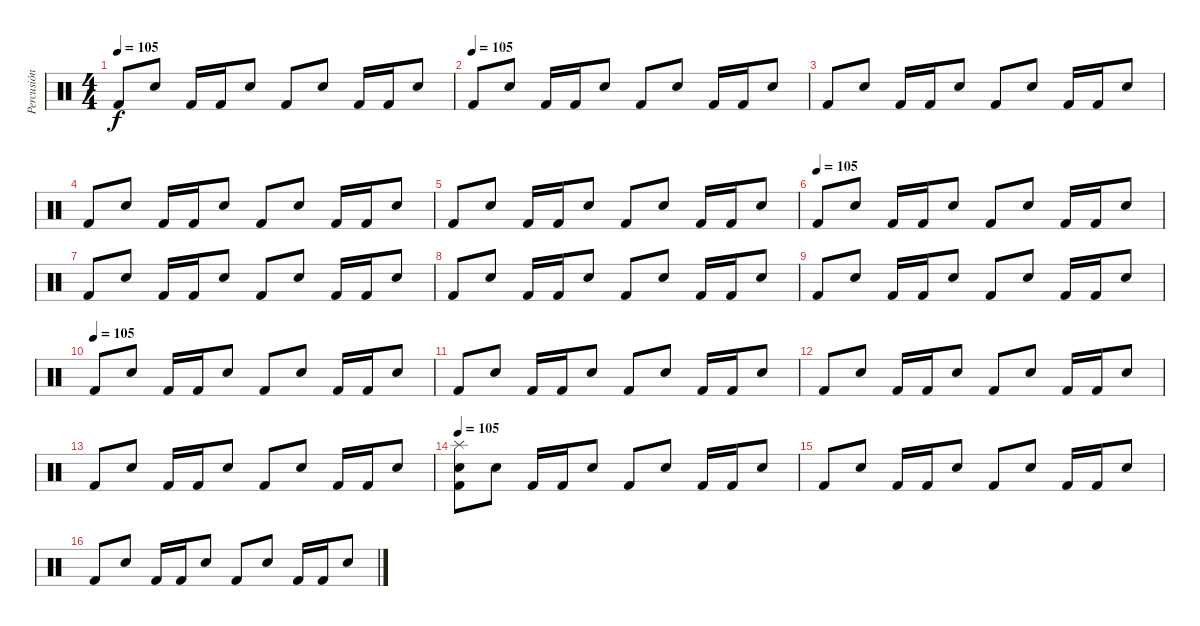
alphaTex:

\track ("Percusión" "Percusión") {instrument percussion}
\staff {score}
\articulation defaults
\ts (4 4)
\tempo 105
\clef neutral
\ks c "Kick (hit) 2".8{dy f} "Electric Snare (hit)".8 "Kick (hit) 2".16 "Kick (hit) 2".16 "Electric Snare (hit)".8 "Kick (hit) 2".8 "Electric Snare (hit)".8 "Kick (hit) 2".16 "Kick (hit) 2".16 "Electric Snare (hit)".8
|
\tempo (105)
"Kick (hit) 2".8 "Electric Snare (hit)".8 "Kick (hit) 2".16 "Kick (hit) 2".16 "Electric Snare (hit)".8 "Kick (hit) 2".8 "Electric Snare (hit)".8 "Kick (hit) 2".16 "Kick (hit) 2".16 "Electric Snare (hit)".8 |
"Kick (hit) 2".8 "Electric Snare (hit)".8 "Kick (hit) 2".16 "Kick (hit) 2".16 "Electric Snare (hit)".8 "Kick (hit) 2".8 "Electric Snare (hit)".8 "Kick (hit) 2".16 "Kick (hit) 2".16 "Electric Snare (hit)".8 |
"Kick (hit) 2".8 "Electric Snare (hit)".8 "Kick (hit) 2".16 "Kick (hit) 2".16 "Electric Snare (hit)".8 "Kick (hit) 2".8 "Electric Snare (hit)".8 "Kick (hit) 2".16 "Kick (hit) 2".16 "Electric Snare (hit)".8 |
"Kick (hit) 2".8 "Electric Snare (hit)".8 "Kick (hit) 2".16 "Kick (hit) 2".16 "Electric Snare (hit)".8 "Kick (hit) 2".8 "Electric Snare (hit)".8 "Kick (hit) 2".16 "Kick (hit) 2".16 "Electric Snare (hit)".8 |
\tempo (105)
"Kick (hit) 2".8 "Electric Snare (hit)".8 "Kick (hit) 2".16 "Kick (hit) 2".16 "Electric Snare (hit)".8 "Kick (hit) 2".8 "Electric Snare (hit)".8 "Kick (hit) 2".16 "Kick (hit) 2".16 "Electric Snare (hit)".8 |
"Kick (hit) 2".8 "Electric Snare (hit)".8 "Kick (hit) 2".16 "Kick (hit) 2".16 "Electric Snare (hit)".8 "Kick (hit) 2".8 "Electric Snare (hit)".8 "Kick (hit) 2".16 "Kick (hit) 2".16 "Electric Snare (hit)".8 |
"Kick (hit) 2".8 "Electric Snare (hit)".8 "Kick (hit) 2".16 "Kick (hit) 2".16 "Electric Snare (hit)".8 "Kick (hit) 2".8 "Electric Snare (hit)".8 "Kick (hit) 2".16 "Kick (hit) 2".16 "Electric Snare (hit)".8 |
"Kick (hit) 2".8 "Electric Snare (hit)".8 "Kick (hit) 2".16 "Kick (hit) 2".16 "Electric Snare (hit)".8 "Kick (hit) 2".8 "Electric Snare (hit)".8 "Kick (hit) 2".16 "Kick (hit) 2".16 "Electric Snare (hit)".8 |
\tempo (105)
"Kick (hit) 2".8 "Electric Snare (hit)".8 "Kick (hit) 2".16 "Kick (hit) 2".16 "Electric Snare (hit)".8 "Kick (hit) 2".8 "Electric Snare (hit)".8 "Kick (hit) 2".16 "Kick (hit) 2".16 "Electric Snare (hit)".8 |
"Kick (hit) 2".8 "Electric Snare (hit)".8 "Kick (hit) 2".16 "Kick (hit) 2".16 "Electric Snare (hit)".8 "Kick (hit) 2".8 "Electric Snare (hit)".8 "Kick (hit) 2".16 "Kick (hit) 2".16 "Electric Snare (hit)".8 |
"Kick (hit) 2".8 "Electric Snare (hit)".8 "Kick (hit) 2".16 "Kick (hit) 2".16 "Electric Snare (hit)".8 "Kick (hit) 2".8 "Electric Snare (hit)".8 "Kick (hit) 2".16 "Kick (hit) 2".16 "Electric Snare (hit)".8 |
"Kick (hit) 2".8 "Electric Snare (hit)".8 "Kick (hit) 2".16 "Kick (hit) 2".16 "Electric Snare (hit)".8 "Kick (hit) 2".8 "Electric Snare (hit)".8 "Kick (hit) 2".16 "Kick (hit) 2".16 "Electric Snare (hit)".8 |
\tempo 105
("Electric Snare (hit)" "Kick (hit) 2" "Splash (hit)").8 "Electric Snare (hit)".8 "Kick (hit) 2".16 "Kick (hit) 2".16 "Electric Snare (hit)".8 "Kick (hit) 2".8 "Electric Snare (hit)".8 "Kick (hit) 2".16 "Kick (hit) 2".16 "Electric Snare (hit)".8 |
"Kick (hit) 2".8 "Electric Snare (hit)".8 "Kick (hit) 2".16 "Kick (hit) 2".16 "Electric Snare (hit)".8 "Kick (hit) 2".8 "Electric Snare (hit)".8 "Kick (hit) 2".16 "Kick (hit) 2".16 "Electric Snare (hit)".8 |
"Kick (hit) 2".8 "Electric Snare (hit)".8 "Kick (hit) 2".16 "Kick (hit) 2".16 "Electric Snare (hit)".8 "Kick (hit) 2".8 "Electric Snare (hit)".8 "Kick (hit) 2".16 "Kick (hit) 2".16 "Electric Snare (hit)".8
